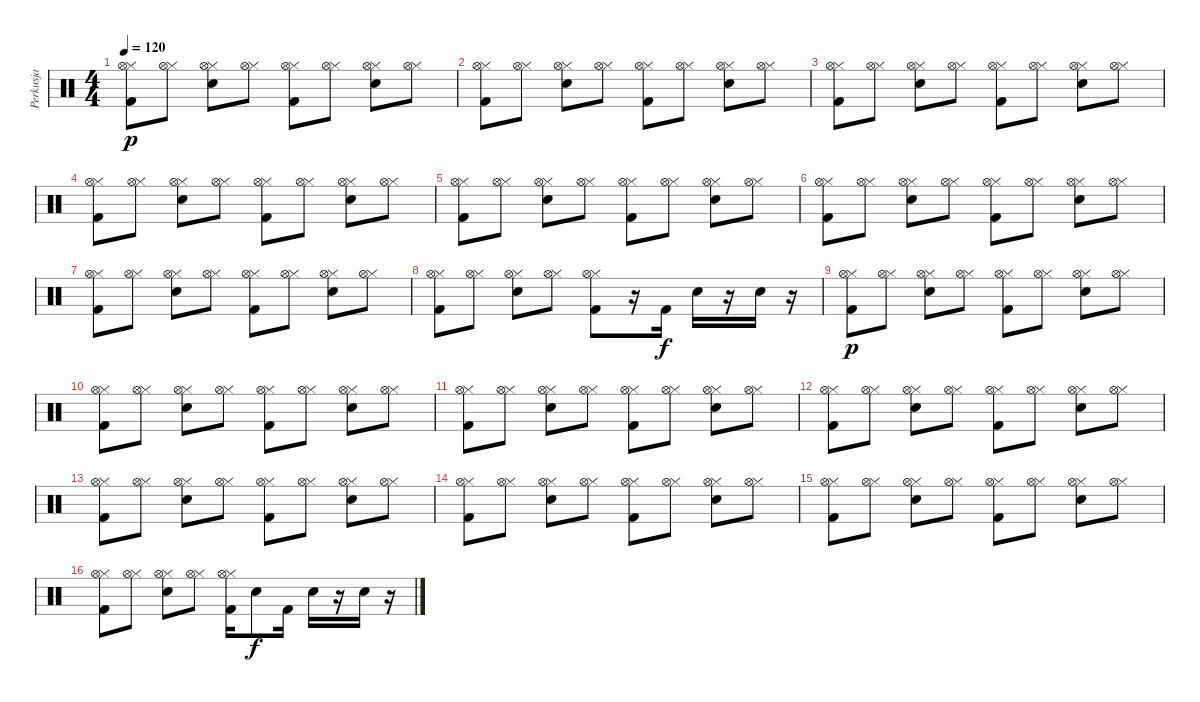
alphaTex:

\track ("Perkusja" "Perkusja") {instrument percussion}
\staff {score}
\articulation defaults
\ts (4 4)
\tempo 120
\clef neutral
\ks c
("Kick (hit) 2" "Hi-Hat (closed)" "Hi-Hat (open)").8{dy p} ("Hi-Hat (closed)" "Hi-Hat (open)").8 ("Electric Snare (hit)" "Hi-Hat (closed)" "Hi-Hat (open)").8 ("Hi-Hat (closed)" "Hi-Hat (open)").8 ("Kick (hit) 2" "Hi-Hat (closed)" "Hi-Hat (open)").8 ("Hi-Hat (closed)" "Hi-Hat (open)").8 ("Electric Snare (hit)" "Hi-Hat (closed)" "Hi-Hat (open)").8 ("Hi-Hat (closed)" "Hi-Hat (open)").8 |
("Kick (hit) 2" "Hi-Hat (closed)" "Hi-Hat (open)").8 ("Hi-Hat (closed)" "Hi-Hat (open)").8 ("Electric Snare (hit)" "Hi-Hat (closed)" "Hi-Hat (open)").8 ("Hi-Hat (closed)" "Hi-Hat (open)").8 ("Kick (hit) 2" "Hi-Hat (closed)" "Hi-Hat (open)").8 ("Hi-Hat (closed)" "Hi-Hat (open)").8 ("Electric Snare (hit)" "Hi-Hat (closed)" "Hi-Hat (open)").8 ("Hi-Hat (closed)" "Hi-Hat (open)").8 |
("Kick (hit) 2" "Hi-Hat (closed)" "Hi-Hat (open)").8 ("Hi-Hat (closed)" "Hi-Hat (open)").8 ("Electric Snare (hit)" "Hi-Hat (closed)" "Hi-Hat (open)").8 ("Hi-Hat (closed)" "Hi-Hat (open)").8 ("Kick (hit) 2" "Hi-Hat (closed)" "Hi-Hat (open)").8 ("Hi-Hat (closed)" "Hi-Hat (open)").8 ("Electric Snare (hit)" "Hi-Hat (closed)" "Hi-Hat (open)").8 ("Hi-Hat (closed)" "Hi-Hat (open)").8 |
("Kick (hit) 2" "Hi-Hat (closed)" "Hi-Hat (open)").8 ("Hi-Hat (closed)" "Hi-Hat (open)").8 ("Electric Snare (hit)" "Hi-Hat (closed)" "Hi-Hat (open)").8 ("Hi-Hat (closed)" "Hi-Hat (open)").8 ("Kick (hit) 2" "Hi-Hat (closed)" "Hi-Hat (open)").8 ("Hi-Hat (closed)" "Hi-Hat (open)").8 ("Electric Snare (hit)" "Hi-Hat (closed)" "Hi-Hat (open)").8 ("Hi-Hat (closed)" "Hi-Hat (open)").8 |
("Kick (hit) 2" "Hi-Hat (closed)" "Hi-Hat (open)").8 ("Hi-Hat (closed)" "Hi-Hat (open)").8 ("Electric Snare (hit)" "Hi-Hat (closed)" "Hi-Hat (open)").8 ("Hi-Hat (closed)" "Hi-Hat (open)").8 ("Kick (hit) 2" "Hi-Hat (closed)" "Hi-Hat (open)").8 ("Hi-Hat (closed)" "Hi-Hat (open)").8 ("Electric Snare (hit)" "Hi-Hat (closed)" "Hi-Hat (open)").8 ("Hi-Hat (closed)" "Hi-Hat (open)").8 |
("Kick (hit) 2" "Hi-Hat (closed)" "Hi-Hat (open)").8 ("Hi-Hat (closed)" "Hi-Hat (open)").8 ("Electric Snare (hit)" "Hi-Hat (closed)" "Hi-Hat (open)").8 ("Hi-Hat (closed)" "Hi-Hat (open)").8 ("Kick (hit) 2" "Hi-Hat (closed)" "Hi-Hat (open)").8 ("Hi-Hat (closed)" "Hi-Hat (open)").8 ("Electric Snare (hit)" "Hi-Hat (closed)" "Hi-Hat (open)").8 ("Hi-Hat (closed)" "Hi-Hat (open)").8 |
("Kick (hit) 2" "Hi-Hat (closed)" "Hi-Hat (open)").8 ("Hi-Hat (closed)" "Hi-Hat (open)").8 ("Electric Snare (hit)" "Hi-Hat (closed)" "Hi-Hat (open)").8 ("Hi-Hat (closed)" "Hi-Hat (open)").8 ("Kick (hit) 2" "Hi-Hat (closed)" "Hi-Hat (open)").8 ("Hi-Hat (closed)" "Hi-Hat (open)").8 ("Electric Snare (hit)" "Hi-Hat (closed)" "Hi-Hat (open)").8 ("Hi-Hat (closed)" "Hi-Hat (open)").8 |
("Kick (hit) 2" "Hi-Hat (closed)" "Hi-Hat (open)").8 ("Hi-Hat (closed)" "Hi-Hat (open)").8 ("Electric Snare (hit)" "Hi-Hat (closed)" "Hi-Hat (open)").8 ("Hi-Hat (closed)" "Hi-Hat (open)").8 ("Kick (hit) 2" "Hi-Hat (closed)" "Hi-Hat (open)").8 r.16 "Kick (hit) 2".16{dy f} "Electric Snare (hit)".16 r.16 "Electric Snare (hit)".16 r.16 |
("Kick (hit) 2" "Hi-Hat (closed)" "Hi-Hat (open)").8{dy p} ("Hi-Hat (closed)" "Hi-Hat (open)").8 ("Electric Snare (hit)" "Hi-Hat (closed)" "Hi-Hat (open)").8 ("Hi-Hat (closed)" "Hi-Hat (open)").8 ("Kick (hit) 2" "Hi-Hat (closed)" "Hi-Hat (open)").8 ("Hi-Hat (closed)" "Hi-Hat (open)").8 ("Electric Snare (hit)" "Hi-Hat (closed)" "Hi-Hat (open)").8 ("Hi-Hat (closed)" "Hi-Hat (open)").8 |
("Kick (hit) 2" "Hi-Hat (closed)" "Hi-Hat (open)").8 ("Hi-Hat (closed)" "Hi-Hat (open)").8 ("Electric Snare (hit)" "Hi-Hat (closed)" "Hi-Hat (open)").8 ("Hi-Hat (closed)" "Hi-Hat (open)").8 ("Kick (hit) 2" "Hi-Hat (closed)" "Hi-Hat (open)").8 ("Hi-Hat (closed)" "Hi-Hat (open)").8 ("Electric Snare (hit)" "Hi-Hat (closed)" "Hi-Hat (open)").8 ("Hi-Hat (closed)" "Hi-Hat (open)").8 |
("Kick (hit) 2" "Hi-Hat (closed)" "Hi-Hat (open)").8 ("Hi-Hat (closed)" "Hi-Hat (open)").8 ("Electric Snare (hit)" "Hi-Hat (closed)" "Hi-Hat (open)").8 ("Hi-Hat (closed)" "Hi-Hat (open)").8 ("Kick (hit) 2" "Hi-Hat (closed)" "Hi-Hat (open)").8 ("Hi-Hat (closed)" "Hi-Hat (open)").8 ("Electric Snare (hit)" "Hi-Hat (closed)" "Hi-Hat (open)").8 ("Hi-Hat (closed)" "Hi-Hat (open)").8 |
("Kick (hit) 2" "Hi-Hat (closed)" "Hi-Hat (open)").8 ("Hi-Hat (closed)" "Hi-Hat (open)").8 ("Electric Snare (hit)" "Hi-Hat (closed)" "Hi-Hat (open)").8 ("Hi-Hat (closed)" "Hi-Hat (open)").8 ("Kick (hit) 2" "Hi-Hat (closed)" "Hi-Hat (open)").8 ("Hi-Hat (closed)" "Hi-Hat (open)").8 ("Electric Snare (hit)" "Hi-Hat (closed)" "Hi-Hat (open)").8 ("Hi-Hat (closed)" "Hi-Hat (open)").8 |
("Kick (hit) 2" "Hi-Hat (closed)" "Hi-Hat (open)").8 ("Hi-Hat (closed)" "Hi-Hat (open)").8 ("Electric Snare (hit)" "Hi-Hat (closed)" "Hi-Hat (open)").8 ("Hi-Hat (closed)" "Hi-Hat (open)").8 ("Kick (hit) 2" "Hi-Hat (closed)" "Hi-Hat (open)").8 ("Hi-Hat (closed)" "Hi-Hat (open)").8 ("Electric Snare (hit)" "Hi-Hat (closed)" "Hi-Hat (open)").8 ("Hi-Hat (closed)" "Hi-Hat (open)").8 |
("Kick (hit) 2" "Hi-Hat (closed)" "Hi-Hat (open)").8 ("Hi-Hat (closed)" "Hi-Hat (open)").8 ("Electric Snare (hit)" "Hi-Hat (closed)" "Hi-Hat (open)").8 ("Hi-Hat (closed)" "Hi-Hat (open)").8 ("Kick (hit) 2" "Hi-Hat (closed)" "Hi-Hat (open)").8 ("Hi-Hat (closed)" "Hi-Hat (open)").8 ("Electric Snare (hit)" "Hi-Hat (closed)" "Hi-Hat (open)").8 ("Hi-Hat (closed)" "Hi-Hat (open)").8 |
("Kick (hit) 2" "Hi-Hat (closed)" "Hi-Hat (open)").8 ("Hi-Hat (closed)" "Hi-Hat (open)").8 ("Electric Snare (hit)" "Hi-Hat (closed)" "Hi-Hat (open)").8 ("Hi-Hat (closed)" "Hi-Hat (open)").8 ("Kick (hit) 2" "Hi-Hat (closed)" "Hi-Hat (open)").8 ("Hi-Hat (closed)" "Hi-Hat (open)").8 ("Electric Snare (hit)" "Hi-Hat (closed)" "Hi-Hat (open)").8 ("Hi-Hat (closed)" "Hi-Hat (open)").8 |
("Kick (hit) 2" "Hi-Hat (closed)" "Hi-Hat (open)").8 ("Hi-Hat (closed)" "Hi-Hat (open)").8 ("Electric Snare (hit)" "Hi-Hat (closed)" "Hi-Hat (open)").8 ("Hi-Hat (closed)" "Hi-Hat (open)").8 ("Kick (hit) 2" "Hi-Hat (closed)" "Hi-Hat (open)").16 "Electric Snare (hit)".8{dy f} "Kick (hit) 2".16 "Electric Snare (hit)".16 r.16 "Electric Snare (hit)".16 r.16
